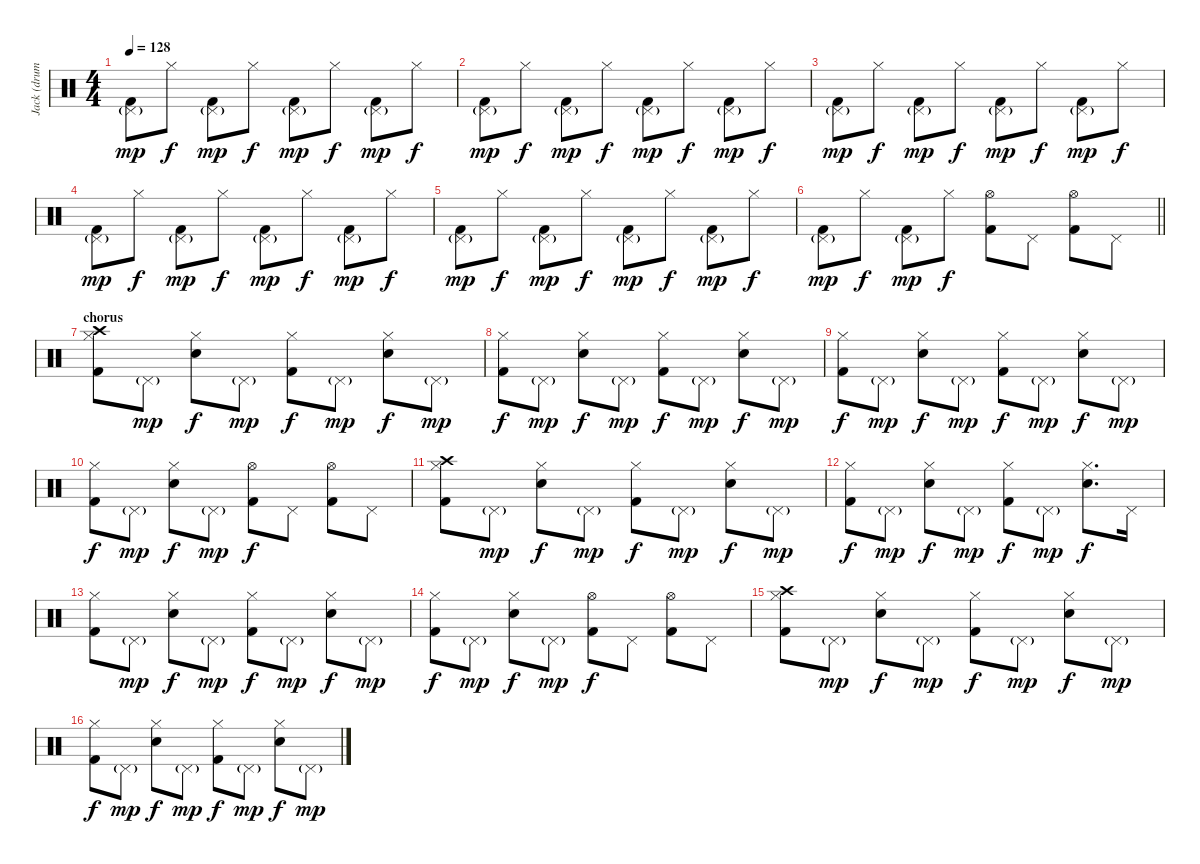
\track ("Jack (drums)" "Jack (drum") {instrument percussion}
\staff {score}
\articulation defaults
\ts (4 4)
\tempo 128
\clef neutral
\ks c
("Pedal Hi-Hat (hit)"{g} "Kick (hit) 2").8{dy mp} "Hi-Hat (closed)".8{dy f} ("Pedal Hi-Hat (hit)"{g} "Kick (hit) 2").8{dy mp} "Hi-Hat (closed)".8{dy f} ("Pedal Hi-Hat (hit)"{g} "Kick (hit) 2").8{dy mp} "Hi-Hat (closed)".8{dy f} ("Pedal Hi-Hat (hit)"{g} "Kick (hit) 2").8{dy mp} "Hi-Hat (closed)".8{dy f} |
("Pedal Hi-Hat (hit)"{g} "Kick (hit) 2").8{dy mp} "Hi-Hat (closed)".8{dy f} ("Pedal Hi-Hat (hit)"{g} "Kick (hit) 2").8{dy mp} "Hi-Hat (closed)".8{dy f} ("Pedal Hi-Hat (hit)"{g} "Kick (hit) 2").8{dy mp} "Hi-Hat (closed)".8{dy f} ("Pedal Hi-Hat (hit)"{g} "Kick (hit) 2").8{dy mp} "Hi-Hat (closed)".8{dy f} |
("Pedal Hi-Hat (hit)"{g} "Kick (hit) 2").8{dy mp} "Hi-Hat (closed)".8{dy f} ("Pedal Hi-Hat (hit)"{g} "Kick (hit) 2").8{dy mp} "Hi-Hat (closed)".8{dy f} ("Pedal Hi-Hat (hit)"{g} "Kick (hit) 2").8{dy mp} "Hi-Hat (closed)".8{dy f} ("Pedal Hi-Hat (hit)"{g} "Kick (hit) 2").8{dy mp} "Hi-Hat (closed)".8{dy f} |
("Pedal Hi-Hat (hit)"{g} "Kick (hit) 2").8{dy mp} "Hi-Hat (closed)".8{dy f} ("Pedal Hi-Hat (hit)"{g} "Kick (hit) 2").8{dy mp} "Hi-Hat (closed)".8{dy f} ("Pedal Hi-Hat (hit)"{g} "Kick (hit) 2").8{dy mp} "Hi-Hat (closed)".8{dy f} ("Pedal Hi-Hat (hit)"{g} "Kick (hit) 2").8{dy mp} "Hi-Hat (closed)".8{dy f} |
("Pedal Hi-Hat (hit)"{g} "Kick (hit) 2").8{dy mp} "Hi-Hat (closed)".8{dy f} ("Pedal Hi-Hat (hit)"{g} "Kick (hit) 2").8{dy mp} "Hi-Hat (closed)".8{dy f} ("Pedal Hi-Hat (hit)"{g} "Kick (hit) 2").8{dy mp} "Hi-Hat (closed)".8{dy f} ("Pedal Hi-Hat (hit)"{g} "Kick (hit) 2").8{dy mp} "Hi-Hat (closed)".8{dy f} |
\barLineRight lightlight
("Pedal Hi-Hat (hit)"{g} "Kick (hit) 2").8{dy mp} "Hi-Hat (closed)".8{dy f} ("Pedal Hi-Hat (hit)"{g} "Kick (hit) 2").8{dy mp} "Hi-Hat (closed)".8{dy f} ("Hi-Hat (open)" "Kick (hit) 2").8 "Pedal Hi-Hat (hit)".8 ("Hi-Hat (open)" "Kick (hit) 2").8 "Pedal Hi-Hat (hit)".8 |
\section ("" "chorus")
("Hi-Hat (closed)" "Crash high (hit)" "Kick (hit) 2").8 "Pedal Hi-Hat (hit)"{g}.8{dy mp} ("Hi-Hat (closed)" "Snare (hit) 2").8{dy f} "Pedal Hi-Hat (hit)"{g}.8{dy mp} ("Hi-Hat (closed)" "Kick (hit) 2").8{dy f} "Pedal Hi-Hat (hit)"{g}.8{dy mp} ("Hi-Hat (closed)" "Snare (hit) 2").8{dy f} "Pedal Hi-Hat (hit)"{g}.8{dy mp} |
("Hi-Hat (closed)" "Kick (hit) 2").8{dy f} "Pedal Hi-Hat (hit)"{g}.8{dy mp} ("Hi-Hat (closed)" "Snare (hit) 2").8{dy f} "Pedal Hi-Hat (hit)"{g}.8{dy mp} ("Hi-Hat (closed)" "Kick (hit) 2").8{dy f} "Pedal Hi-Hat (hit)"{g}.8{dy mp} ("Hi-Hat (closed)" "Snare (hit) 2").8{dy f} "Pedal Hi-Hat (hit)"{g}.8{dy mp} |
("Hi-Hat (closed)" "Kick (hit) 2").8{dy f} "Pedal Hi-Hat (hit)"{g}.8{dy mp} ("Hi-Hat (closed)" "Snare (hit) 2").8{dy f} "Pedal Hi-Hat (hit)"{g}.8{dy mp} ("Hi-Hat (closed)" "Kick (hit) 2").8{dy f} "Pedal Hi-Hat (hit)"{g}.8{dy mp} ("Hi-Hat (closed)" "Snare (hit) 2").8{dy f} "Pedal Hi-Hat (hit)"{g}.8{dy mp} |
("Hi-Hat (closed)" "Kick (hit) 2").8{dy f} "Pedal Hi-Hat (hit)"{g}.8{dy mp} ("Hi-Hat (closed)" "Snare (hit) 2").8{dy f} "Pedal Hi-Hat (hit)"{g}.8{dy mp} ("Hi-Hat (open)" "Kick (hit) 2").8{dy f} "Pedal Hi-Hat (hit)".8 ("Hi-Hat (open)" "Kick (hit) 2").8 "Pedal Hi-Hat (hit)".8 |
("Hi-Hat (closed)" "Crash high (hit)" "Kick (hit) 2").8 "Pedal Hi-Hat (hit)"{g}.8{dy mp} ("Hi-Hat (closed)" "Snare (hit) 2").8{dy f} "Pedal Hi-Hat (hit)"{g}.8{dy mp} ("Hi-Hat (closed)" "Kick (hit) 2").8{dy f} "Pedal Hi-Hat (hit)"{g}.8{dy mp} ("Hi-Hat (closed)" "Snare (hit) 2").8{dy f} "Pedal Hi-Hat (hit)"{g}.8{dy mp} |
("Hi-Hat (closed)" "Kick (hit) 2").8{dy f} "Pedal Hi-Hat (hit)"{g}.8{dy mp} ("Hi-Hat (closed)" "Snare (hit) 2").8{dy f} "Pedal Hi-Hat (hit)"{g}.8{dy mp} ("Hi-Hat (closed)" "Kick (hit) 2").8{dy f} "Pedal Hi-Hat (hit)"{g}.8{dy mp} ("Hi-Hat (closed)" "Snare (hit) 2").8{d dy f} "Pedal Hi-Hat (hit)".16 |
("Hi-Hat (closed)" "Kick (hit) 2").8 "Pedal Hi-Hat (hit)"{g}.8{dy mp} ("Hi-Hat (closed)" "Snare (hit) 2").8{dy f} "Pedal Hi-Hat (hit)"{g}.8{dy mp} ("Hi-Hat (closed)" "Kick (hit) 2").8{dy f} "Pedal Hi-Hat (hit)"{g}.8{dy mp} ("Hi-Hat (closed)" "Snare (hit) 2").8{dy f} "Pedal Hi-Hat (hit)"{g}.8{dy mp} |
("Hi-Hat (closed)" "Kick (hit) 2").8{dy f} "Pedal Hi-Hat (hit)"{g}.8{dy mp} ("Hi-Hat (closed)" "Snare (hit) 2").8{dy f} "Pedal Hi-Hat (hit)"{g}.8{dy mp} ("Hi-Hat (open)" "Kick (hit) 2").8{dy f} "Pedal Hi-Hat (hit)".8 ("Hi-Hat (open)" "Kick (hit) 2").8 "Pedal Hi-Hat (hit)".8 |
("Hi-Hat (closed)" "Crash high (hit)" "Kick (hit) 2").8 "Pedal Hi-Hat (hit)"{g}.8{dy mp} ("Hi-Hat (closed)" "Snare (hit) 2").8{dy f} "Pedal Hi-Hat (hit)"{g}.8{dy mp} ("Hi-Hat (closed)" "Kick (hit) 2").8{dy f} "Pedal Hi-Hat (hit)"{g}.8{dy mp} ("Hi-Hat (closed)" "Snare (hit) 2").8{dy f} "Pedal Hi-Hat (hit)"{g}.8{dy mp} |
("Hi-Hat (closed)" "Kick (hit) 2").8{dy f} "Pedal Hi-Hat (hit)"{g}.8{dy mp} ("Hi-Hat (closed)" "Snare (hit) 2").8{dy f} "Pedal Hi-Hat (hit)"{g}.8{dy mp} ("Hi-Hat (closed)" "Kick (hit) 2").8{dy f} "Pedal Hi-Hat (hit)"{g}.8{dy mp} ("Hi-Hat (closed)" "Snare (hit) 2").8{dy f} "Pedal Hi-Hat (hit)"{g}.8{dy mp}
